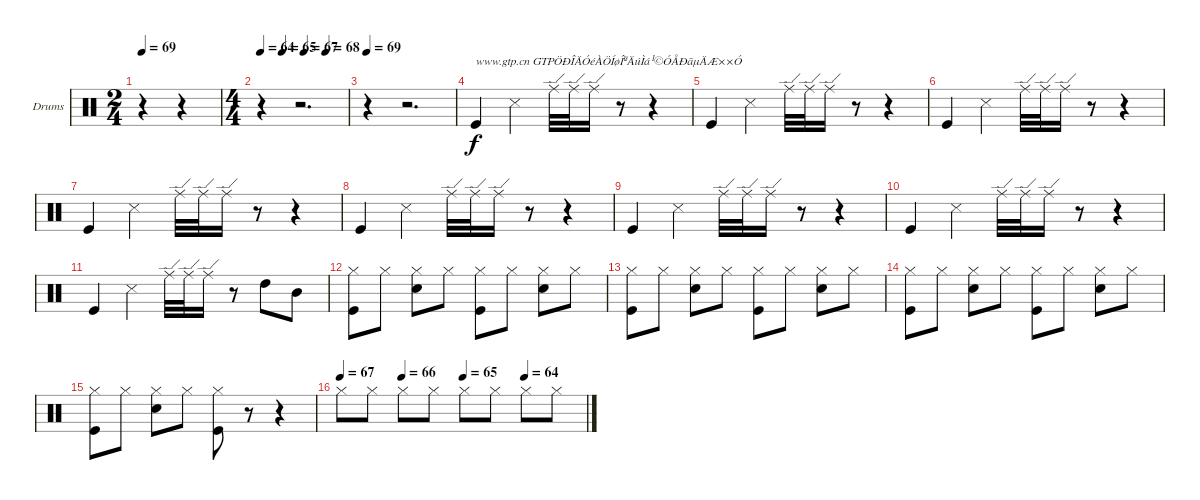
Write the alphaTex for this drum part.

\bracketExtendMode groupsimilarinstruments
\firstSystemTrackNameOrientation horizontal
\otherSystemsTrackNameOrientation horizontal
\track ("Drumkit" "Drums") {instrument percussion}
\staff {score}
\articulation defaults
\ts (2 4)
\tempo 69
\clef neutral
\ks c
r.4{dy f} r.4 |
\ts (4 4)
\tempo 64
\tempo (65 0.25)
\tempo (67 0.5)
\tempo (68 0.75)
r.4 r.2{d} |
\tempo 69
r.4 r.2{d} |
"Kick (hit)".4{txt "www.gtp.cn GTPÖÐÎÄÓéÀÖÍøÎªÄúÌá¹©ÓÅÐãµÄÆ××Ó"} "Snare (side stick) 3".4 "Ride (edge)".32 "Ride (edge)".32 "Ride (edge)".16 r.8 r.4 |
"Kick (hit)".4 "Snare (side stick) 3".4 "Ride (edge)".32 "Ride (edge)".32 "Ride (edge)".16 r.8 r.4 |
"Kick (hit)".4 "Snare (side stick) 3".4 "Ride (edge)".32 "Ride (edge)".32 "Ride (edge)".16 r.8 r.4 |
"Kick (hit)".4 "Snare (side stick) 3".4 "Ride (edge)".32 "Ride (edge)".32 "Ride (edge)".16 r.8 r.4 |
"Kick (hit)".4 "Snare (side stick) 3".4 "Ride (edge)".32 "Ride (edge)".32 "Ride (edge)".16 r.8 r.4 |
"Kick (hit)".4 "Snare (side stick) 3".4 "Ride (edge)".32 "Ride (edge)".32 "Ride (edge)".16 r.8 r.4 |
"Kick (hit)".4 "Snare (side stick) 3".4 "Ride (edge)".32 "Ride (edge)".32 "Ride (edge)".16 r.8 r.4 |
"Kick (hit)".4 "Snare (side stick) 3".4 "Ride (edge)".32 "Ride (edge)".32 "Ride (edge)".16 r.8 "High Tom (hit)".8 "Mid Tom (hit)".8 |
("Hi-Hat (closed)" "Kick (hit)").8 "Hi-Hat (closed)".8 ("Hi-Hat (closed)" "Snare (hit) 2").8 "Hi-Hat (closed)".8 ("Hi-Hat (closed)" "Kick (hit)").8 "Hi-Hat (closed)".8 ("Hi-Hat (closed)" "Snare (hit) 2").8 "Hi-Hat (closed)".8 |
("Hi-Hat (closed)" "Kick (hit)").8 "Hi-Hat (closed)".8 ("Hi-Hat (closed)" "Snare (hit) 2").8 "Hi-Hat (closed)".8 ("Hi-Hat (closed)" "Kick (hit)").8 "Hi-Hat (closed)".8 ("Hi-Hat (closed)" "Snare (hit) 2").8 "Hi-Hat (closed)".8 |
("Hi-Hat (closed)" "Kick (hit)").8 "Hi-Hat (closed)".8 ("Hi-Hat (closed)" "Snare (hit) 2").8 "Hi-Hat (closed)".8 ("Hi-Hat (closed)" "Kick (hit)").8 "Hi-Hat (closed)".8 ("Hi-Hat (closed)" "Snare (hit) 2").8 "Hi-Hat (closed)".8 |
("Hi-Hat (closed)" "Kick (hit)").8 "Hi-Hat (closed)".8 ("Hi-Hat (closed)" "Snare (hit) 2").8 "Hi-Hat (closed)".8 ("Hi-Hat (closed)" "Kick (hit)").8 r.8 r.4 |
\tempo 67
\tempo (66 0.25)
\tempo (65 0.5)
\tempo (64 0.75)
"Hi-Hat (closed)".8 "Hi-Hat (closed)".8 "Hi-Hat (closed)".8 "Hi-Hat (closed)".8 "Hi-Hat (closed)".8 "Hi-Hat (closed)".8 "Hi-Hat (closed)".8 "Hi-Hat (closed)".8
